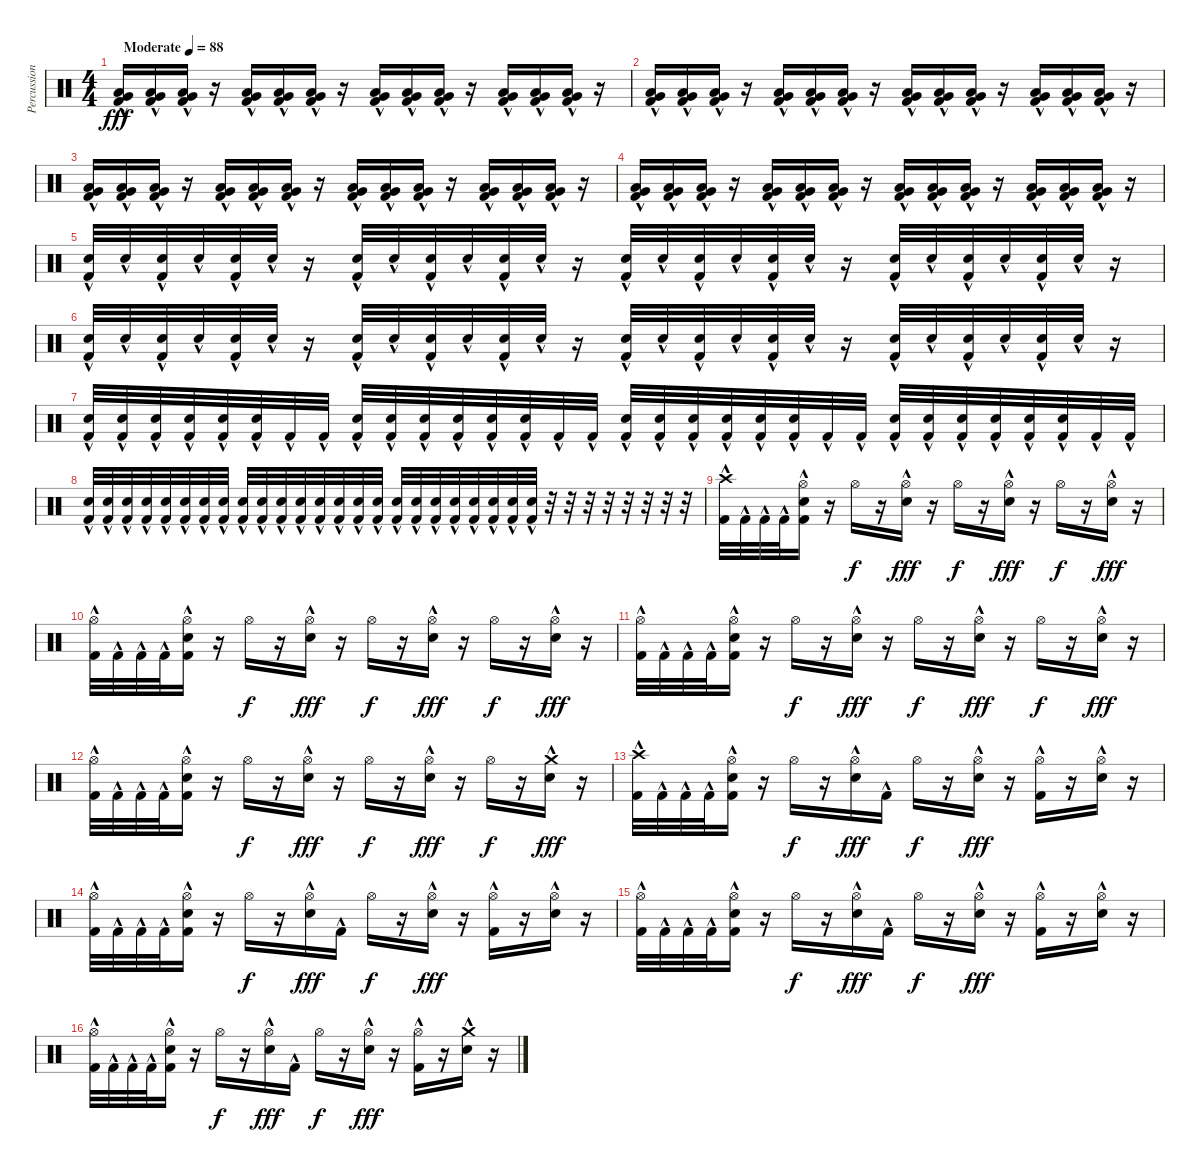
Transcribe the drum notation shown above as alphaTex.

\track ("Percussion" "Percussion") {instrument percussion}
\staff {score}
\articulation defaults
\ts (4 4)
\tempo (88 "Moderate")
\clef neutral
\ks c
("Kick (hit) 2"{hac} "Very Low Tom (hit)"{hac} "Low Tom (hit)"{hac}).16{dy fff} ("Kick (hit) 2"{hac} "Very Low Tom (hit)"{hac} "Low Tom (hit)"{hac}).16 ("Kick (hit) 2"{hac} "Very Low Tom (hit)"{hac} "Low Tom (hit)"{hac}).16 r.16 ("Kick (hit) 2"{hac} "Very Low Tom (hit)"{hac} "Low Tom (hit)"{hac}).16 ("Kick (hit) 2"{hac} "Very Low Tom (hit)"{hac} "Low Tom (hit)"{hac}).16 ("Kick (hit) 2"{hac} "Very Low Tom (hit)"{hac} "Low Tom (hit)"{hac}).16 r.16 ("Kick (hit) 2"{hac} "Very Low Tom (hit)"{hac} "Low Tom (hit)"{hac}).16 ("Kick (hit) 2"{hac} "Very Low Tom (hit)"{hac} "Low Tom (hit)"{hac}).16 ("Kick (hit) 2"{hac} "Very Low Tom (hit)"{hac} "Low Tom (hit)"{hac}).16 r.16 ("Kick (hit) 2"{hac} "Very Low Tom (hit)"{hac} "Low Tom (hit)"{hac}).16 ("Kick (hit) 2"{hac} "Very Low Tom (hit)"{hac} "Low Tom (hit)"{hac}).16 ("Kick (hit) 2"{hac} "Very Low Tom (hit)"{hac} "Low Tom (hit)"{hac}).16 r.16 |
("Kick (hit) 2"{hac} "Very Low Tom (hit)"{hac} "Low Tom (hit)"{hac}).16 ("Kick (hit) 2"{hac} "Very Low Tom (hit)"{hac} "Low Tom (hit)"{hac}).16 ("Kick (hit) 2"{hac} "Very Low Tom (hit)"{hac} "Low Tom (hit)"{hac}).16 r.16 ("Kick (hit) 2"{hac} "Very Low Tom (hit)"{hac} "Low Tom (hit)"{hac}).16 ("Kick (hit) 2"{hac} "Very Low Tom (hit)"{hac} "Low Tom (hit)"{hac}).16 ("Kick (hit) 2"{hac} "Very Low Tom (hit)"{hac} "Low Tom (hit)"{hac}).16 r.16 ("Kick (hit) 2"{hac} "Very Low Tom (hit)"{hac} "Low Tom (hit)"{hac}).16 ("Kick (hit) 2"{hac} "Very Low Tom (hit)"{hac} "Low Tom (hit)"{hac}).16 ("Kick (hit) 2"{hac} "Very Low Tom (hit)"{hac} "Low Tom (hit)"{hac}).16 r.16 ("Kick (hit) 2"{hac} "Very Low Tom (hit)"{hac} "Low Tom (hit)"{hac}).16 ("Kick (hit) 2"{hac} "Very Low Tom (hit)"{hac} "Low Tom (hit)"{hac}).16 ("Kick (hit) 2"{hac} "Very Low Tom (hit)"{hac} "Low Tom (hit)"{hac}).16 r.16 |
("Kick (hit) 2"{hac} "Very Low Tom (hit)"{hac} "Low Tom (hit)"{hac}).16 ("Kick (hit) 2"{hac} "Very Low Tom (hit)"{hac} "Low Tom (hit)"{hac}).16 ("Kick (hit) 2"{hac} "Very Low Tom (hit)"{hac} "Low Tom (hit)"{hac}).16 r.16 ("Kick (hit) 2"{hac} "Very Low Tom (hit)"{hac} "Low Tom (hit)"{hac}).16 ("Kick (hit) 2"{hac} "Very Low Tom (hit)"{hac} "Low Tom (hit)"{hac}).16 ("Kick (hit) 2"{hac} "Very Low Tom (hit)"{hac} "Low Tom (hit)"{hac}).16 r.16 ("Kick (hit) 2"{hac} "Very Low Tom (hit)"{hac} "Low Tom (hit)"{hac}).16 ("Kick (hit) 2"{hac} "Very Low Tom (hit)"{hac} "Low Tom (hit)"{hac}).16 ("Kick (hit) 2"{hac} "Very Low Tom (hit)"{hac} "Low Tom (hit)"{hac}).16 r.16 ("Kick (hit) 2"{hac} "Very Low Tom (hit)"{hac} "Low Tom (hit)"{hac}).16 ("Kick (hit) 2"{hac} "Very Low Tom (hit)"{hac} "Low Tom (hit)"{hac}).16 ("Kick (hit) 2"{hac} "Very Low Tom (hit)"{hac} "Low Tom (hit)"{hac}).16 r.16 |
("Kick (hit) 2"{hac} "Very Low Tom (hit)"{hac} "Low Tom (hit)"{hac}).16 ("Kick (hit) 2"{hac} "Very Low Tom (hit)"{hac} "Low Tom (hit)"{hac}).16 ("Kick (hit) 2"{hac} "Very Low Tom (hit)"{hac} "Low Tom (hit)"{hac}).16 r.16 ("Kick (hit) 2"{hac} "Very Low Tom (hit)"{hac} "Low Tom (hit)"{hac}).16 ("Kick (hit) 2"{hac} "Very Low Tom (hit)"{hac} "Low Tom (hit)"{hac}).16 ("Kick (hit) 2"{hac} "Very Low Tom (hit)"{hac} "Low Tom (hit)"{hac}).16 r.16 ("Kick (hit) 2"{hac} "Very Low Tom (hit)"{hac} "Low Tom (hit)"{hac}).16 ("Kick (hit) 2"{hac} "Very Low Tom (hit)"{hac} "Low Tom (hit)"{hac}).16 ("Kick (hit) 2"{hac} "Very Low Tom (hit)"{hac} "Low Tom (hit)"{hac}).16 r.16 ("Kick (hit) 2"{hac} "Very Low Tom (hit)"{hac} "Low Tom (hit)"{hac}).16 ("Kick (hit) 2"{hac} "Very Low Tom (hit)"{hac} "Low Tom (hit)"{hac}).16 ("Kick (hit) 2"{hac} "Very Low Tom (hit)"{hac} "Low Tom (hit)"{hac}).16 r.16 |
("Kick (hit) 2"{hac} "Electric Snare (hit)"{hac}).32 "Electric Snare (hit)"{hac}.32 ("Kick (hit) 2"{hac} "Electric Snare (hit)"{hac}).32 "Electric Snare (hit)"{hac}.32 ("Kick (hit) 2"{hac} "Electric Snare (hit)"{hac}).32 "Electric Snare (hit)"{hac}.32 r.16 ("Kick (hit) 2"{hac} "Electric Snare (hit)"{hac}).32 "Electric Snare (hit)"{hac}.32 ("Kick (hit) 2"{hac} "Electric Snare (hit)"{hac}).32 "Electric Snare (hit)"{hac}.32 ("Kick (hit) 2"{hac} "Electric Snare (hit)"{hac}).32 "Electric Snare (hit)"{hac}.32 r.16 ("Kick (hit) 2"{hac} "Electric Snare (hit)"{hac}).32 "Electric Snare (hit)"{hac}.32 ("Kick (hit) 2"{hac} "Electric Snare (hit)"{hac}).32 "Electric Snare (hit)"{hac}.32 ("Kick (hit) 2"{hac} "Electric Snare (hit)"{hac}).32 "Electric Snare (hit)"{hac}.32 r.16 ("Kick (hit) 2"{hac} "Electric Snare (hit)"{hac}).32 "Electric Snare (hit)"{hac}.32 ("Kick (hit) 2"{hac} "Electric Snare (hit)"{hac}).32 "Electric Snare (hit)"{hac}.32 ("Kick (hit) 2"{hac} "Electric Snare (hit)"{hac}).32 "Electric Snare (hit)"{hac}.32 r.16 |
("Kick (hit) 2"{hac} "Electric Snare (hit)"{hac}).32 "Electric Snare (hit)"{hac}.32 ("Kick (hit) 2"{hac} "Electric Snare (hit)"{hac}).32 "Electric Snare (hit)"{hac}.32 ("Kick (hit) 2"{hac} "Electric Snare (hit)"{hac}).32 "Electric Snare (hit)"{hac}.32 r.16 ("Kick (hit) 2"{hac} "Electric Snare (hit)"{hac}).32 "Electric Snare (hit)"{hac}.32 ("Kick (hit) 2"{hac} "Electric Snare (hit)"{hac}).32 "Electric Snare (hit)"{hac}.32 ("Kick (hit) 2"{hac} "Electric Snare (hit)"{hac}).32 "Electric Snare (hit)"{hac}.32 r.16 ("Kick (hit) 2"{hac} "Electric Snare (hit)"{hac}).32 "Electric Snare (hit)"{hac}.32 ("Kick (hit) 2"{hac} "Electric Snare (hit)"{hac}).32 "Electric Snare (hit)"{hac}.32 ("Kick (hit) 2"{hac} "Electric Snare (hit)"{hac}).32 "Electric Snare (hit)"{hac}.32 r.16 ("Kick (hit) 2"{hac} "Electric Snare (hit)"{hac}).32 "Electric Snare (hit)"{hac}.32 ("Kick (hit) 2"{hac} "Electric Snare (hit)"{hac}).32 "Electric Snare (hit)"{hac}.32 ("Kick (hit) 2"{hac} "Electric Snare (hit)"{hac}).32 "Electric Snare (hit)"{hac}.32 r.16 |
("Kick (hit) 2"{hac} "Electric Snare (hit)"{hac}).32 ("Kick (hit) 2"{hac} "Electric Snare (hit)"{hac}).32 ("Kick (hit) 2" "Electric Snare (hit)"{hac}).32 ("Kick (hit) 2"{hac} "Electric Snare (hit)"{hac}).32 ("Kick (hit) 2"{hac} "Electric Snare (hit)"{hac}).32 ("Kick (hit) 2"{hac} "Electric Snare (hit)"{hac}).32 "Kick (hit) 2"{hac}.32 "Kick (hit) 2"{hac}.32 ("Kick (hit) 2"{hac} "Electric Snare (hit)"{hac}).32 ("Kick (hit) 2"{hac} "Electric Snare (hit)"{hac}).32 ("Kick (hit) 2" "Electric Snare (hit)"{hac}).32 ("Kick (hit) 2"{hac} "Electric Snare (hit)"{hac}).32 ("Kick (hit) 2"{hac} "Electric Snare (hit)"{hac}).32 ("Kick (hit) 2"{hac} "Electric Snare (hit)"{hac}).32 "Kick (hit) 2"{hac}.32 "Kick (hit) 2"{hac}.32 ("Kick (hit) 2"{hac} "Electric Snare (hit)"{hac}).32 ("Kick (hit) 2"{hac} "Electric Snare (hit)"{hac}).32 ("Kick (hit) 2" "Electric Snare (hit)"{hac}).32 ("Kick (hit) 2"{hac} "Electric Snare (hit)"{hac}).32 ("Kick (hit) 2"{hac} "Electric Snare (hit)"{hac}).32 ("Kick (hit) 2"{hac} "Electric Snare (hit)"{hac}).32 "Kick (hit) 2"{hac}.32 "Kick (hit) 2"{hac}.32 ("Kick (hit) 2"{hac} "Electric Snare (hit)"{hac}).32 ("Kick (hit) 2"{hac} "Electric Snare (hit)"{hac}).32 ("Kick (hit) 2" "Electric Snare (hit)"{hac}).32 ("Kick (hit) 2"{hac} "Electric Snare (hit)"{hac}).32 ("Kick (hit) 2"{hac} "Electric Snare (hit)"{hac}).32 ("Kick (hit) 2"{hac} "Electric Snare (hit)"{hac}).32 "Kick (hit) 2"{hac}.32 "Kick (hit) 2"{hac}.32 |
("Kick (hit) 2"{hac} "Electric Snare (hit)"{hac}).32 ("Kick (hit) 2"{hac} "Electric Snare (hit)"{hac}).32 ("Kick (hit) 2" "Electric Snare (hit)"{hac}).32 ("Kick (hit) 2"{hac} "Electric Snare (hit)"{hac}).32 ("Kick (hit) 2"{hac} "Electric Snare (hit)"{hac}).32 ("Kick (hit) 2"{hac} "Electric Snare (hit)"{hac}).32 ("Kick (hit) 2"{hac} "Electric Snare (hit)"{hac}).32 ("Kick (hit) 2"{hac} "Electric Snare (hit)"{hac}).32 ("Kick (hit) 2"{hac} "Electric Snare (hit)"{hac}).32 ("Kick (hit) 2"{hac} "Electric Snare (hit)"{hac}).32 ("Kick (hit) 2" "Electric Snare (hit)"{hac}).32 ("Kick (hit) 2"{hac} "Electric Snare (hit)"{hac}).32 ("Kick (hit) 2"{hac} "Electric Snare (hit)"{hac}).32 ("Kick (hit) 2"{hac} "Electric Snare (hit)"{hac}).32 ("Kick (hit) 2"{hac} "Electric Snare (hit)"{hac}).32 ("Kick (hit) 2"{hac} "Electric Snare (hit)"{hac}).32 ("Kick (hit) 2"{hac} "Electric Snare (hit)"{hac}).32 ("Kick (hit) 2"{hac} "Electric Snare (hit)"{hac}).32 ("Kick (hit) 2" "Electric Snare (hit)"{hac}).32 ("Kick (hit) 2"{hac} "Electric Snare (hit)"{hac}).32 ("Kick (hit) 2"{hac} "Electric Snare (hit)"{hac}).32 ("Kick (hit) 2"{hac} "Electric Snare (hit)"{hac}).32 ("Kick (hit) 2"{hac} "Electric Snare (hit)"{hac}).32 ("Kick (hit) 2"{hac} "Electric Snare (hit)"{hac}).32 r.32 r.32 r.32 r.32 r.32 r.32 r.32 r.32 |
("Kick (hit) 2"{hac} "Crash high (hit)").32 "Kick (hit) 2"{hac}.32 "Kick (hit) 2"{hac}.32 "Kick (hit) 2"{hac}.32 ("Kick (hit) 2"{hac} "Electric Snare (hit)" "Hi-Hat (open)").16 r.16 "Hi-Hat (open)".16{dy f} r.16 ("Electric Snare (hit)"{hac} "Hi-Hat (open)").16{dy fff} r.16 "Hi-Hat (open)".16{dy f} r.16 ("Electric Snare (hit)"{hac} "Hi-Hat (open)").16{dy fff} r.16 "Hi-Hat (open)".16{dy f} r.16 ("Electric Snare (hit)"{hac} "Hi-Hat (open)").16{dy fff} r.16 |
("Kick (hit) 2"{hac} "Hi-Hat (open)").32 "Kick (hit) 2"{hac}.32 "Kick (hit) 2"{hac}.32 "Kick (hit) 2"{hac}.32 ("Kick (hit) 2"{hac} "Electric Snare (hit)" "Hi-Hat (open)").16 r.16 "Hi-Hat (open)".16{dy f} r.16 ("Electric Snare (hit)"{hac} "Hi-Hat (open)").16{dy fff} r.16 "Hi-Hat (open)".16{dy f} r.16 ("Electric Snare (hit)"{hac} "Hi-Hat (open)").16{dy fff} r.16 "Hi-Hat (open)".16{dy f} r.16 ("Electric Snare (hit)"{hac} "Hi-Hat (open)").16{dy fff} r.16 |
("Kick (hit) 2"{hac} "Hi-Hat (open)").32 "Kick (hit) 2"{hac}.32 "Kick (hit) 2"{hac}.32 "Kick (hit) 2"{hac}.32 ("Kick (hit) 2"{hac} "Electric Snare (hit)" "Hi-Hat (open)").16 r.16 "Hi-Hat (open)".16{dy f} r.16 ("Electric Snare (hit)"{hac} "Hi-Hat (open)").16{dy fff} r.16 "Hi-Hat (open)".16{dy f} r.16 ("Electric Snare (hit)"{hac} "Hi-Hat (open)").16{dy fff} r.16 "Hi-Hat (open)".16{dy f} r.16 ("Electric Snare (hit)"{hac} "Hi-Hat (open)").16{dy fff} r.16 |
("Kick (hit) 2"{hac} "Hi-Hat (open)").32 "Kick (hit) 2"{hac}.32 "Kick (hit) 2"{hac}.32 "Kick (hit) 2"{hac}.32 ("Kick (hit) 2"{hac} "Electric Snare (hit)" "Hi-Hat (open)").16 r.16 "Hi-Hat (open)".16{dy f} r.16 ("Electric Snare (hit)"{hac} "Hi-Hat (open)").16{dy fff} r.16 "Hi-Hat (open)".16{dy f} r.16 ("Electric Snare (hit)"{hac} "Hi-Hat (open)").16{dy fff} r.16 "Hi-Hat (open)".16{dy f} r.16 ("Electric Snare (hit)"{hac} "Crash medium (hit)").16{dy fff} r.16 |
("Kick (hit) 2"{hac} "Crash high (hit)").32 "Kick (hit) 2"{hac}.32 "Kick (hit) 2"{hac}.32 "Kick (hit) 2"{hac}.32 ("Kick (hit) 2"{hac} "Electric Snare (hit)" "Hi-Hat (open)").16 r.16 "Hi-Hat (open)".16{dy f} r.16 ("Electric Snare (hit)"{hac} "Hi-Hat (open)").16{dy fff} "Kick (hit) 2"{hac}.16 "Hi-Hat (open)".16{dy f} r.16 ("Electric Snare (hit)"{hac} "Hi-Hat (open)").16{dy fff} r.16 ("Kick (hit) 2"{hac} "Hi-Hat (open)").16 r.16 ("Electric Snare (hit)"{hac} "Hi-Hat (open)").16 r.16 |
("Kick (hit) 2"{hac} "Hi-Hat (open)").32 "Kick (hit) 2"{hac}.32 "Kick (hit) 2"{hac}.32 "Kick (hit) 2"{hac}.32 ("Kick (hit) 2"{hac} "Electric Snare (hit)" "Hi-Hat (open)").16 r.16 "Hi-Hat (open)".16{dy f} r.16 ("Electric Snare (hit)"{hac} "Hi-Hat (open)").16{dy fff} "Kick (hit) 2"{hac}.16 "Hi-Hat (open)".16{dy f} r.16 ("Electric Snare (hit)"{hac} "Hi-Hat (open)").16{dy fff} r.16 ("Kick (hit) 2"{hac} "Hi-Hat (open)").16 r.16 ("Electric Snare (hit)"{hac} "Hi-Hat (open)").16 r.16 |
("Kick (hit) 2"{hac} "Hi-Hat (open)").32 "Kick (hit) 2"{hac}.32 "Kick (hit) 2"{hac}.32 "Kick (hit) 2"{hac}.32 ("Kick (hit) 2"{hac} "Electric Snare (hit)" "Hi-Hat (open)").16 r.16 "Hi-Hat (open)".16{dy f} r.16 ("Electric Snare (hit)"{hac} "Hi-Hat (open)").16{dy fff} "Kick (hit) 2"{hac}.16 "Hi-Hat (open)".16{dy f} r.16 ("Electric Snare (hit)"{hac} "Hi-Hat (open)").16{dy fff} r.16 ("Kick (hit) 2"{hac} "Hi-Hat (open)").16 r.16 ("Electric Snare (hit)"{hac} "Hi-Hat (open)").16 r.16 |
("Kick (hit) 2"{hac} "Hi-Hat (open)").32 "Kick (hit) 2"{hac}.32 "Kick (hit) 2"{hac}.32 "Kick (hit) 2"{hac}.32 ("Kick (hit) 2"{hac} "Electric Snare (hit)" "Hi-Hat (open)").16 r.16 "Hi-Hat (open)".16{dy f} r.16 ("Electric Snare (hit)"{hac} "Hi-Hat (open)").16{dy fff} "Kick (hit) 2"{hac}.16 "Hi-Hat (open)".16{dy f} r.16 ("Electric Snare (hit)"{hac} "Hi-Hat (open)").16{dy fff} r.16 ("Kick (hit) 2"{hac} "Hi-Hat (open)").16 r.16 ("Electric Snare (hit)"{hac} "Crash medium (hit)").16 r.16
